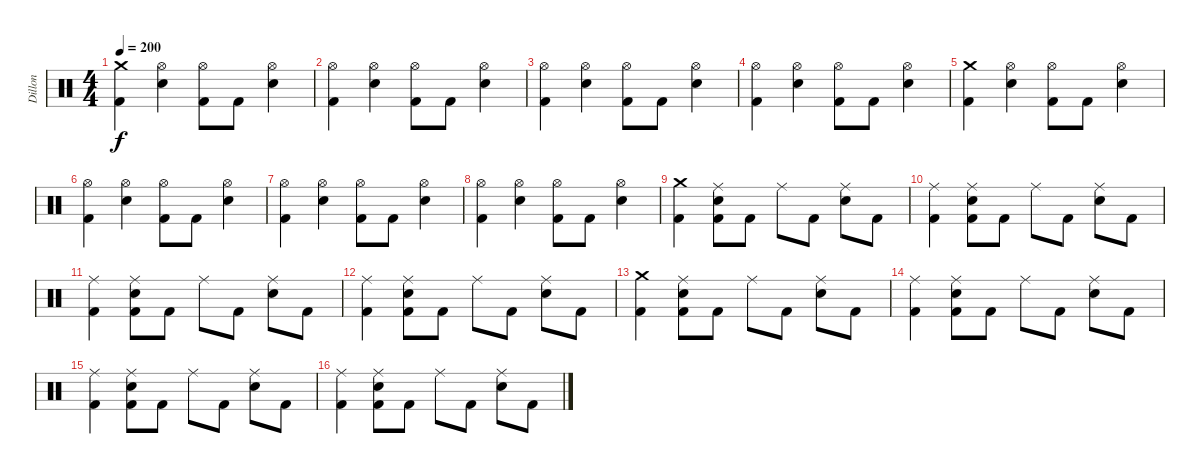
\track ("Dillon" "Dillon") {instrument percussion}
\staff {score}
\articulation defaults
\ts (4 4)
\tempo 200
\clef neutral
\ks c
("Crash medium (hit)" "Kick (hit) 2").4{dy f} ("Hi-Hat (open)" "Electric Snare (hit)").4 ("Hi-Hat (open)" "Kick (hit) 2").8 "Kick (hit) 2".8 ("Hi-Hat (open)" "Electric Snare (hit)").4 |
("Hi-Hat (open)" "Kick (hit) 2").4 ("Hi-Hat (open)" "Electric Snare (hit)").4 ("Hi-Hat (open)" "Kick (hit) 2").8 "Kick (hit) 2".8 ("Hi-Hat (open)" "Electric Snare (hit)").4 |
("Hi-Hat (open)" "Kick (hit) 2").4 ("Hi-Hat (open)" "Electric Snare (hit)").4 ("Hi-Hat (open)" "Kick (hit) 2").8 "Kick (hit) 2".8 ("Hi-Hat (open)" "Electric Snare (hit)").4 |
("Hi-Hat (open)" "Kick (hit) 2").4 ("Hi-Hat (open)" "Electric Snare (hit)").4 ("Hi-Hat (open)" "Kick (hit) 2").8 "Kick (hit) 2".8 ("Hi-Hat (open)" "Electric Snare (hit)").4 |
("Crash medium (hit)" "Kick (hit) 2").4 ("Hi-Hat (open)" "Electric Snare (hit)").4 ("Hi-Hat (open)" "Kick (hit) 2").8 "Kick (hit) 2".8 ("Hi-Hat (open)" "Electric Snare (hit)").4 |
("Hi-Hat (open)" "Kick (hit) 2").4 ("Hi-Hat (open)" "Electric Snare (hit)").4 ("Hi-Hat (open)" "Kick (hit) 2").8 "Kick (hit) 2".8 ("Hi-Hat (open)" "Electric Snare (hit)").4 |
("Hi-Hat (open)" "Kick (hit) 2").4 ("Hi-Hat (open)" "Electric Snare (hit)").4 ("Hi-Hat (open)" "Kick (hit) 2").8 "Kick (hit) 2".8 ("Hi-Hat (open)" "Electric Snare (hit)").4 |
("Hi-Hat (open)" "Kick (hit) 2").4 ("Hi-Hat (open)" "Electric Snare (hit)").4 ("Hi-Hat (open)" "Kick (hit) 2").8 "Kick (hit) 2".8 ("Hi-Hat (open)" "Electric Snare (hit)").4 |
("Crash medium (hit)" "Kick (hit) 2").4 ("Ride (middle)" "Electric Snare (hit)" "Kick (hit) 2").8 "Kick (hit) 2".8 "Ride (middle)".8 "Kick (hit) 2".8 ("Ride (middle)" "Electric Snare (hit)").8 "Kick (hit) 2".8 |
("Ride (middle)" "Kick (hit) 2").4 ("Ride (middle)" "Electric Snare (hit)" "Kick (hit) 2").8 "Kick (hit) 2".8 "Ride (middle)".8 "Kick (hit) 2".8 ("Ride (middle)" "Electric Snare (hit)").8 "Kick (hit) 2".8 |
("Ride (middle)" "Kick (hit) 2").4 ("Ride (middle)" "Electric Snare (hit)" "Kick (hit) 2").8 "Kick (hit) 2".8 "Ride (middle)".8 "Kick (hit) 2".8 ("Ride (middle)" "Electric Snare (hit)").8 "Kick (hit) 2".8 |
("Ride (middle)" "Kick (hit) 2").4 ("Ride (middle)" "Electric Snare (hit)" "Kick (hit) 2").8 "Kick (hit) 2".8 "Ride (middle)".8 "Kick (hit) 2".8 ("Ride (middle)" "Electric Snare (hit)").8 "Kick (hit) 2".8 |
("Crash medium (hit)" "Kick (hit) 2").4 ("Ride (middle)" "Electric Snare (hit)" "Kick (hit) 2").8 "Kick (hit) 2".8 "Ride (middle)".8 "Kick (hit) 2".8 ("Ride (middle)" "Electric Snare (hit)").8 "Kick (hit) 2".8 |
("Ride (middle)" "Kick (hit) 2").4 ("Ride (middle)" "Electric Snare (hit)" "Kick (hit) 2").8 "Kick (hit) 2".8 "Ride (middle)".8 "Kick (hit) 2".8 ("Ride (middle)" "Electric Snare (hit)").8 "Kick (hit) 2".8 |
("Ride (middle)" "Kick (hit) 2").4 ("Ride (middle)" "Electric Snare (hit)" "Kick (hit) 2").8 "Kick (hit) 2".8 "Ride (middle)".8 "Kick (hit) 2".8 ("Ride (middle)" "Electric Snare (hit)").8 "Kick (hit) 2".8 |
("Ride (middle)" "Kick (hit) 2").4 ("Ride (middle)" "Electric Snare (hit)" "Kick (hit) 2").8 "Kick (hit) 2".8 "Ride (middle)".8 "Kick (hit) 2".8 ("Ride (middle)" "Electric Snare (hit)").8 "Kick (hit) 2".8
